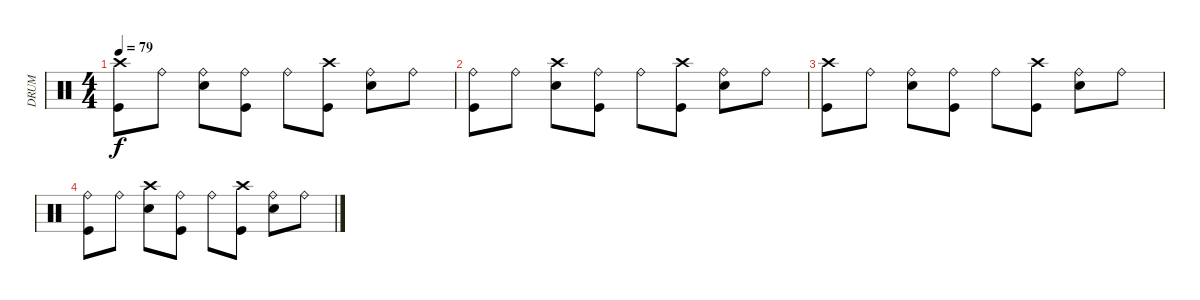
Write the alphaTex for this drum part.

\track ("DRUM" "DRUM") {instrument percussion}
\staff {score}
\articulation defaults
\ts (4 4)
\tempo 79
\clef neutral
\ks c
("Crash high (hit)" "Kick (hit)").8{dy f volume 2} "Ride (bell)".8 ("Ride (bell)" "Electric Snare (hit)").8 ("Ride (bell)" "Kick (hit)").8 "Ride (bell)".8 ("Crash high (hit)" "Kick (hit)").8 ("Ride (bell)" "Electric Snare (hit)").8 "Ride (bell)".8 |
("Ride (bell)" "Kick (hit)").8 "Ride (bell)".8 ("Crash high (hit)" "Electric Snare (hit)").8 ("Ride (bell)" "Kick (hit)").8 "Ride (bell)".8 ("Crash high (hit)" "Kick (hit)").8 ("Ride (bell)" "Electric Snare (hit)").8 "Ride (bell)".8 |
("Crash high (hit)" "Kick (hit)").8 "Ride (bell)".8 ("Ride (bell)" "Electric Snare (hit)").8 ("Ride (bell)" "Kick (hit)").8 "Ride (bell)".8 ("Crash high (hit)" "Kick (hit)").8 ("Ride (bell)" "Electric Snare (hit)").8 "Ride (bell)".8 |
("Ride (bell)" "Kick (hit)").8 "Ride (bell)".8 ("Crash high (hit)" "Electric Snare (hit)").8 ("Ride (bell)" "Kick (hit)").8 "Ride (bell)".8 ("Crash high (hit)" "Kick (hit)").8 ("Ride (bell)" "Electric Snare (hit)").8 "Ride (bell)".8
